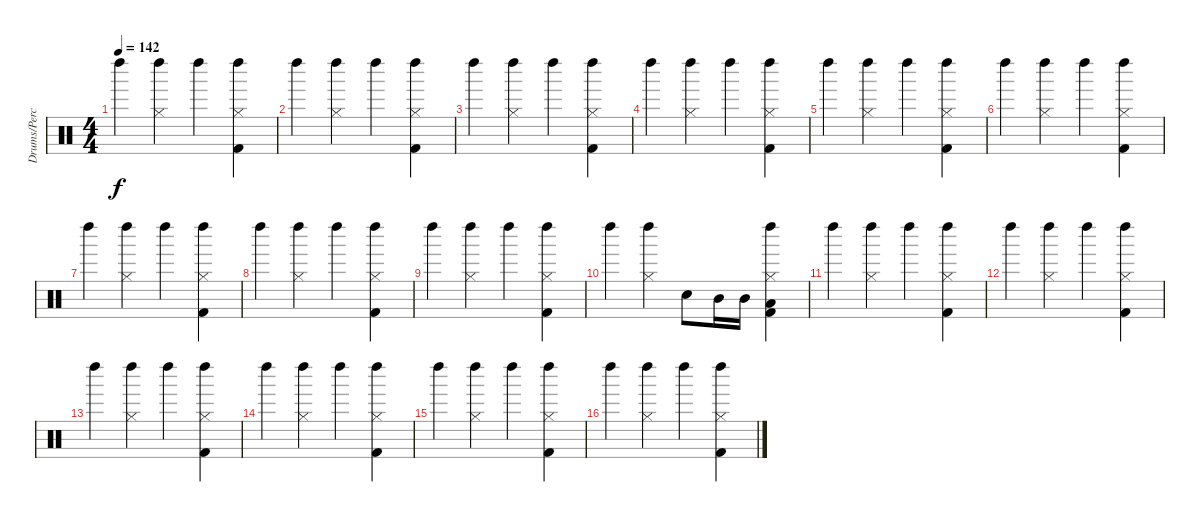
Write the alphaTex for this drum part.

\track ("Drums/Percussion (Bengerg)" "Drums/Perc") {instrument percussion}
\staff {score}
\articulation defaults
\ts (4 4)
\tempo 142
\clef neutral
\ks c "Left Maraca (hit)".4{dy f}
("Hi-Hat (closed)" "Left Maraca (hit)").4 "Left Maraca (hit)".4 ("Hi-Hat (closed)" "Kick (hit) 2" "Left Maraca (hit)").4 |
"Left Maraca (hit)".4 ("Hi-Hat (closed)" "Left Maraca (hit)").4 "Left Maraca (hit)".4 ("Hi-Hat (closed)" "Kick (hit) 2" "Left Maraca (hit)").4 |
"Left Maraca (hit)".4 ("Hi-Hat (closed)" "Left Maraca (hit)").4 "Left Maraca (hit)".4 ("Hi-Hat (closed)" "Kick (hit) 2" "Left Maraca (hit)").4 |
"Left Maraca (hit)".4 ("Hi-Hat (closed)" "Left Maraca (hit)").4 "Left Maraca (hit)".4 ("Hi-Hat (closed)" "Kick (hit) 2" "Left Maraca (hit)").4 |
"Left Maraca (hit)".4 ("Hi-Hat (closed)" "Left Maraca (hit)").4 "Left Maraca (hit)".4 ("Hi-Hat (closed)" "Kick (hit) 2" "Left Maraca (hit)").4 |
"Left Maraca (hit)".4 ("Hi-Hat (closed)" "Left Maraca (hit)").4 "Left Maraca (hit)".4 ("Hi-Hat (closed)" "Kick (hit) 2" "Left Maraca (hit)").4 |
"Left Maraca (hit)".4 ("Hi-Hat (closed)" "Left Maraca (hit)").4 "Left Maraca (hit)".4 ("Hi-Hat (closed)" "Kick (hit) 2" "Left Maraca (hit)").4 |
"Left Maraca (hit)".4 ("Hi-Hat (closed)" "Left Maraca (hit)").4 "Left Maraca (hit)".4 ("Hi-Hat (closed)" "Kick (hit) 2" "Left Maraca (hit)").4 |
"Left Maraca (hit)".4 ("Hi-Hat (closed)" "Left Maraca (hit)").4 "Left Maraca (hit)".4 ("Hi-Hat (closed)" "Kick (hit) 2" "Left Maraca (hit)").4 |
"Left Maraca (hit)".4 ("Hi-Hat (closed)" "Left Maraca (hit)").4 "Snare (hit)".8 "Mid Tom (hit)".16 "Mid Tom (hit)".16 ("Hi-Hat (closed)" "Low Tom (hit)" "Kick (hit) 2" "Left Maraca (hit)").4 |
"Left Maraca (hit)".4 ("Hi-Hat (closed)" "Left Maraca (hit)").4 "Left Maraca (hit)".4 ("Hi-Hat (closed)" "Kick (hit) 2" "Left Maraca (hit)").4 |
"Left Maraca (hit)".4 ("Hi-Hat (closed)" "Left Maraca (hit)").4 "Left Maraca (hit)".4 ("Hi-Hat (closed)" "Kick (hit) 2" "Left Maraca (hit)").4 |
"Left Maraca (hit)".4 ("Hi-Hat (closed)" "Left Maraca (hit)").4 "Left Maraca (hit)".4 ("Hi-Hat (closed)" "Kick (hit) 2" "Left Maraca (hit)").4 |
"Left Maraca (hit)".4 ("Hi-Hat (closed)" "Left Maraca (hit)").4 "Left Maraca (hit)".4 ("Hi-Hat (closed)" "Kick (hit) 2" "Left Maraca (hit)").4 |
"Left Maraca (hit)".4 ("Hi-Hat (closed)" "Left Maraca (hit)").4 "Left Maraca (hit)".4 ("Hi-Hat (closed)" "Kick (hit) 2" "Left Maraca (hit)").4 |
"Left Maraca (hit)".4 ("Hi-Hat (closed)" "Left Maraca (hit)").4 "Left Maraca (hit)".4 ("Hi-Hat (closed)" "Kick (hit) 2" "Left Maraca (hit)").4
